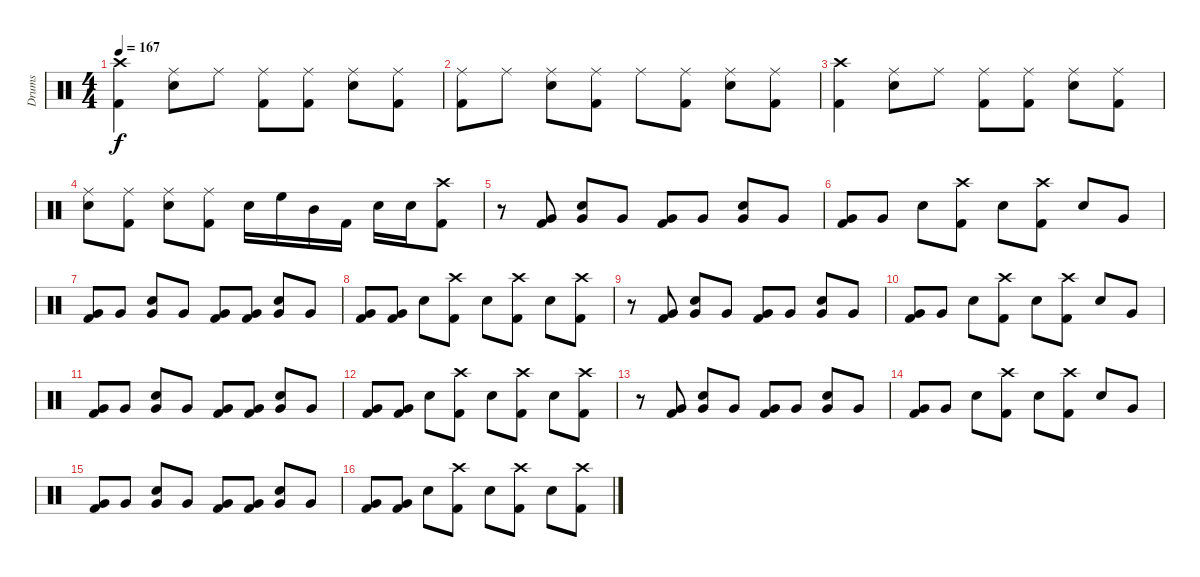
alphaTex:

\track ("Drums" "Drums") {instrument percussion}
\staff {score}
\articulation defaults
\ts (4 4)
\tempo 167
\clef neutral
\ks c
("Kick (hit) 2" "Crash high (hit)").4{dy f} ("Ride (middle)" "Snare (hit) 2").8 "Ride (middle)".8 ("Ride (middle)" "Kick (hit) 2").8 ("Ride (middle)" "Kick (hit) 2").8 ("Ride (middle)" "Snare (hit) 2").8 ("Ride (middle)" "Kick (hit) 2").8 |
("Kick (hit) 2" "Ride (middle)").8 "Ride (middle)".8 ("Snare (hit) 2" "Ride (middle)").8 ("Kick (hit) 2" "Ride (middle)").8 "Ride (middle)".8 ("Kick (hit) 2" "Ride (middle)").8 ("Snare (hit) 2" "Ride (middle)").8 ("Kick (hit) 2" "Ride (middle)").8 |
("Kick (hit) 2" "Crash high (hit)").4 ("Ride (middle)" "Snare (hit) 2").8 "Ride (middle)".8 ("Ride (middle)" "Kick (hit) 2").8 ("Ride (middle)" "Kick (hit) 2").8 ("Ride (middle)" "Snare (hit) 2").8 ("Ride (middle)" "Kick (hit) 2").8 |
("Snare (hit) 2" "Ride (middle)").8 ("Ride (middle)" "Kick (hit) 2").8 ("Ride (middle)" "Snare (hit) 2").8 ("Ride (middle)" "Kick (hit) 2").8 "Snare (hit) 2".16 "High Floor Tom (hit)".16 "Mid Tom (hit)".16 "Kick (hit) 2".16 "Snare (hit) 2".16 "Snare (hit) 2".16 ("Crash high (hit)" "Kick (hit) 2").8 |
r.8 ("Very Low Tom (hit)" "Kick (hit) 2").8 ("Snare (hit) 2" "Very Low Tom (hit)").8 "Very Low Tom (hit)".8 ("Very Low Tom (hit)" "Kick (hit) 2").8 "Very Low Tom (hit)".8 ("Snare (hit) 2" "Very Low Tom (hit)").8 "Very Low Tom (hit)".8 |
("Very Low Tom (hit)" "Kick (hit) 2").8 "Very Low Tom (hit)".8 "Snare (hit) 2".8 ("Crash high (hit)" "Kick (hit) 2").8 "Snare (hit) 2".8 ("Crash high (hit)" "Kick (hit) 2").8 "Snare (hit) 2".8 "Very Low Tom (hit)".8 |
("Kick (hit) 2" "Very Low Tom (hit)").8 "Very Low Tom (hit)".8 ("Snare (hit) 2" "Very Low Tom (hit)").8 "Very Low Tom (hit)".8 ("Kick (hit) 2" "Very Low Tom (hit)").8 ("Kick (hit) 2" "Very Low Tom (hit)").8 ("Snare (hit) 2" "Very Low Tom (hit)").8 "Very Low Tom (hit)".8 |
("Kick (hit) 2" "Very Low Tom (hit)").8 ("Kick (hit) 2" "Very Low Tom (hit)").8 "Snare (hit) 2".8 ("Kick (hit) 2" "Crash high (hit)").8 "Snare (hit) 2".8 ("Kick (hit) 2" "Crash high (hit)").8 "Snare (hit) 2".8 ("Kick (hit) 2" "Crash high (hit)").8 |
r.8 ("Very Low Tom (hit)" "Kick (hit) 2").8 ("Snare (hit) 2" "Very Low Tom (hit)").8 "Very Low Tom (hit)".8 ("Very Low Tom (hit)" "Kick (hit) 2").8 "Very Low Tom (hit)".8 ("Snare (hit) 2" "Very Low Tom (hit)").8 "Very Low Tom (hit)".8 |
("Very Low Tom (hit)" "Kick (hit) 2").8 "Very Low Tom (hit)".8 "Snare (hit) 2".8 ("Crash high (hit)" "Kick (hit) 2").8 "Snare (hit) 2".8 ("Crash high (hit)" "Kick (hit) 2").8 "Snare (hit) 2".8 "Very Low Tom (hit)".8 |
("Kick (hit) 2" "Very Low Tom (hit)").8 "Very Low Tom (hit)".8 ("Snare (hit) 2" "Very Low Tom (hit)").8 "Very Low Tom (hit)".8 ("Kick (hit) 2" "Very Low Tom (hit)").8 ("Kick (hit) 2" "Very Low Tom (hit)").8 ("Snare (hit) 2" "Very Low Tom (hit)").8 "Very Low Tom (hit)".8 |
("Kick (hit) 2" "Very Low Tom (hit)").8 ("Kick (hit) 2" "Very Low Tom (hit)").8 "Snare (hit) 2".8 ("Kick (hit) 2" "Crash high (hit)").8 "Snare (hit) 2".8 ("Kick (hit) 2" "Crash high (hit)").8 "Snare (hit) 2".8 ("Kick (hit) 2" "Crash high (hit)").8 |
r.8 ("Very Low Tom (hit)" "Kick (hit) 2").8 ("Snare (hit) 2" "Very Low Tom (hit)").8 "Very Low Tom (hit)".8 ("Very Low Tom (hit)" "Kick (hit) 2").8 "Very Low Tom (hit)".8 ("Snare (hit) 2" "Very Low Tom (hit)").8 "Very Low Tom (hit)".8 |
("Very Low Tom (hit)" "Kick (hit) 2").8 "Very Low Tom (hit)".8 "Snare (hit) 2".8 ("Crash high (hit)" "Kick (hit) 2").8 "Snare (hit) 2".8 ("Crash high (hit)" "Kick (hit) 2").8 "Snare (hit) 2".8 "Very Low Tom (hit)".8 |
("Kick (hit) 2" "Very Low Tom (hit)").8 "Very Low Tom (hit)".8 ("Snare (hit) 2" "Very Low Tom (hit)").8 "Very Low Tom (hit)".8 ("Kick (hit) 2" "Very Low Tom (hit)").8 ("Kick (hit) 2" "Very Low Tom (hit)").8 ("Snare (hit) 2" "Very Low Tom (hit)").8 "Very Low Tom (hit)".8 |
("Kick (hit) 2" "Very Low Tom (hit)").8 ("Kick (hit) 2" "Very Low Tom (hit)").8 "Snare (hit) 2".8 ("Kick (hit) 2" "Crash high (hit)").8 "Snare (hit) 2".8 ("Kick (hit) 2" "Crash high (hit)").8 "Snare (hit) 2".8 ("Kick (hit) 2" "Crash high (hit)").8
